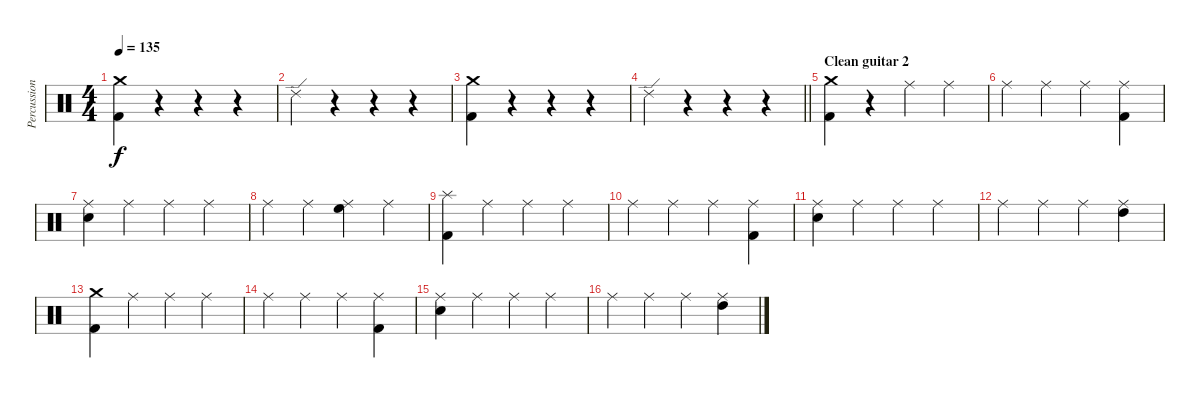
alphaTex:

\track ("Percussion" "Percussion") {instrument percussion}
\staff {score}
\articulation defaults
\ts (4 4)
\tempo 135
\clef neutral
\ks c
("Crash medium (hit)" "Kick (hit) 2").4{dy f} r.4 r.4 r.4 |
"Ride (edge) 2".4 r.4 r.4 r.4 |
("Crash medium (hit)" "Kick (hit) 2").4 r.4 r.4 r.4 |
\barLineRight lightlight "Ride (edge) 2".4
r.4 r.4 r.4 |
\section ("" "Clean guitar 2")
("Crash medium (hit)" "Kick (hit) 2").4 r.4 "Ride (middle)".4 "Ride (middle)".4 |
"Ride (middle)".4 "Ride (middle)".4 "Ride (middle)".4 ("Ride (middle)" "Kick (hit) 2").4 |
("Ride (middle)" "Electric Snare (hit)").4 "Ride (middle)".4 "Ride (middle)".4 "Ride (middle)".4 |
"Ride (middle)".4 "Ride (middle)".4 ("Ride (middle)" "High Floor Tom (hit)").4 "Ride (middle)".4 |
("Splash (hit)" "Kick (hit) 2").4 "Ride (middle)".4 "Ride (middle)".4 "Ride (middle)".4 |
"Ride (middle)".4 "Ride (middle)".4 "Ride (middle)".4 ("Ride (middle)" "Kick (hit) 2").4 |
("Ride (middle)" "Electric Snare (hit)").4 "Ride (middle)".4 "Ride (middle)".4 "Ride (middle)".4 |
"Ride (middle)".4 "Ride (middle)".4 "Ride (middle)".4 ("Ride (middle)" "High Tom (hit)").4 |
("Crash medium (hit)" "Kick (hit) 2").4 "Ride (middle)".4 "Ride (middle)".4 "Ride (middle)".4 |
"Ride (middle)".4 "Ride (middle)".4 "Ride (middle)".4 ("Ride (middle)" "Kick (hit) 2").4 |
("Ride (middle)" "Electric Snare (hit)").4 "Ride (middle)".4 "Ride (middle)".4 "Ride (middle)".4 |
"Ride (middle)".4 "Ride (middle)".4 "Ride (middle)".4 ("Ride (middle)" "High Tom (hit)").4
